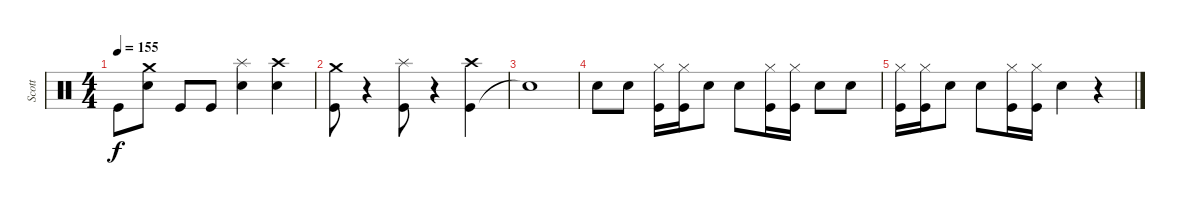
\track ("Scott" "Scott") {instrument percussion}
\staff {score}
\articulation defaults
\ts (4 4)
\tempo 155
\clef neutral
\ks c "Kick (hit)".8{dy f}
("Snare (hit) 2" "Crash medium (hit)").8 "Kick (hit)".8 "Kick (hit)".8 ("Snare (hit) 2" "Splash (hit)").4 ("Snare (hit) 2" "Crash high (hit)").4 |
("Kick (hit)" "Crash medium (hit)").8 r.4 ("Kick (hit)" "Splash (hit)").8 r.4 ("Kick (hit)" "Crash high (hit)").4 |
"Snare (hit)"{t}.1 |
"Snare (hit) 2".8 "Snare (hit) 2".8 ("Kick (hit)" "Hi-Hat (closed)").16 ("Kick (hit)" "Hi-Hat (closed)").16 "Snare (hit) 2".8 "Snare (hit) 2".8 ("Kick (hit)" "Hi-Hat (closed)").16 ("Kick (hit)" "Hi-Hat (closed)").16 "Snare (hit) 2".8 "Snare (hit) 2".8 |
("Kick (hit)" "Hi-Hat (closed)").16 ("Kick (hit)" "Hi-Hat (closed)").16 "Snare (hit) 2".8 "Snare (hit) 2".8 ("Kick (hit)" "Hi-Hat (closed)").16 ("Kick (hit)" "Hi-Hat (closed)").16 "Snare (hit) 2".4 r.4
